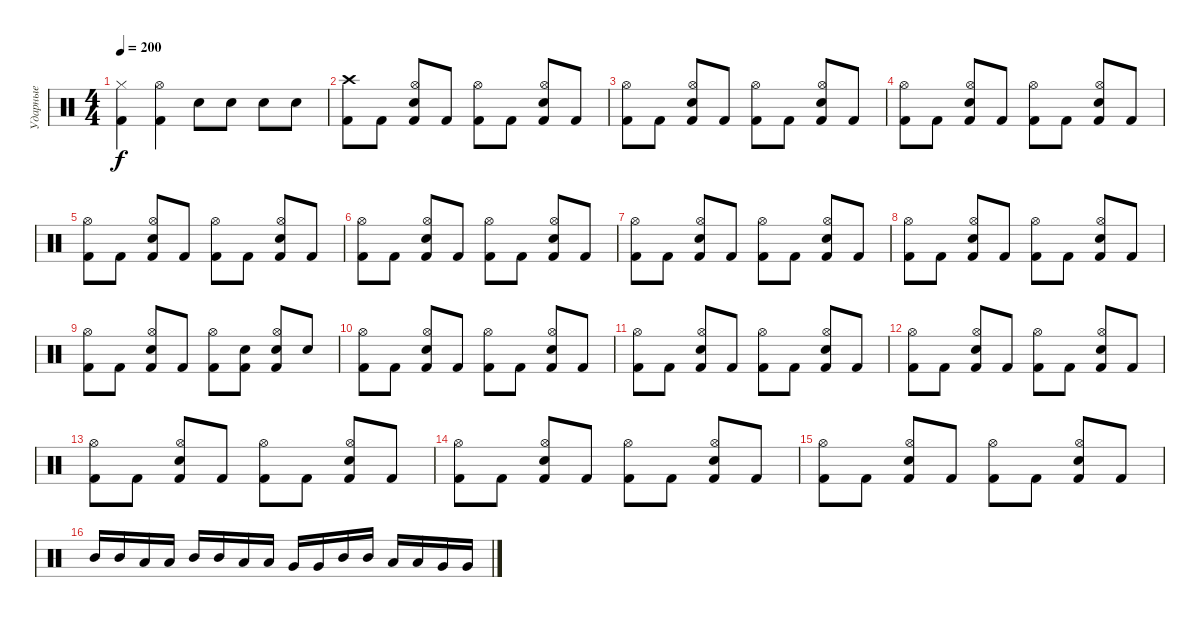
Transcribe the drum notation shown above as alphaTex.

\track ("Ударные" "Ударные") {instrument percussion}
\staff {score}
\articulation defaults
\ts (4 4)
\tempo 200
\clef neutral
\ks c
("Hi-Hat (closed)" "Kick (hit) 2").4{dy f} ("Hi-Hat (open)" "Kick (hit) 2").4 "Electric Snare (hit)".8 "Electric Snare (hit)".8 "Electric Snare (hit)".8 "Electric Snare (hit)".8 |
("Crash high (hit)" "Kick (hit) 2").8 "Kick (hit) 2".8 ("Hi-Hat (open)" "Electric Snare (hit)" "Kick (hit) 2").8 "Kick (hit) 2".8 ("Hi-Hat (open)" "Kick (hit) 2").8 "Kick (hit) 2".8 ("Hi-Hat (open)" "Electric Snare (hit)" "Kick (hit) 2").8 "Kick (hit) 2".8 |
("Hi-Hat (open)" "Kick (hit) 2").8 "Kick (hit) 2".8 ("Hi-Hat (open)" "Electric Snare (hit)" "Kick (hit) 2").8 "Kick (hit) 2".8 ("Hi-Hat (open)" "Kick (hit) 2").8 "Kick (hit) 2".8 ("Hi-Hat (open)" "Electric Snare (hit)" "Kick (hit) 2").8 "Kick (hit) 2".8 |
("Hi-Hat (open)" "Kick (hit) 2").8 "Kick (hit) 2".8 ("Hi-Hat (open)" "Electric Snare (hit)" "Kick (hit) 2").8 "Kick (hit) 2".8 ("Hi-Hat (open)" "Kick (hit) 2").8 "Kick (hit) 2".8 ("Hi-Hat (open)" "Electric Snare (hit)" "Kick (hit) 2").8 "Kick (hit) 2".8 |
("Hi-Hat (open)" "Kick (hit) 2").8 "Kick (hit) 2".8 ("Hi-Hat (open)" "Electric Snare (hit)" "Kick (hit) 2").8 "Kick (hit) 2".8 ("Hi-Hat (open)" "Kick (hit) 2").8 "Kick (hit) 2".8 ("Hi-Hat (open)" "Electric Snare (hit)" "Kick (hit) 2").8 "Kick (hit) 2".8 |
("Hi-Hat (open)" "Kick (hit) 2").8 "Kick (hit) 2".8 ("Hi-Hat (open)" "Electric Snare (hit)" "Kick (hit) 2").8 "Kick (hit) 2".8 ("Hi-Hat (open)" "Kick (hit) 2").8 "Kick (hit) 2".8 ("Hi-Hat (open)" "Electric Snare (hit)" "Kick (hit) 2").8 "Kick (hit) 2".8 |
("Hi-Hat (open)" "Kick (hit) 2").8 "Kick (hit) 2".8 ("Hi-Hat (open)" "Electric Snare (hit)" "Kick (hit) 2").8 "Kick (hit) 2".8 ("Hi-Hat (open)" "Kick (hit) 2").8 "Kick (hit) 2".8 ("Hi-Hat (open)" "Electric Snare (hit)" "Kick (hit) 2").8 "Kick (hit) 2".8 |
("Hi-Hat (open)" "Kick (hit) 2").8 "Kick (hit) 2".8 ("Hi-Hat (open)" "Electric Snare (hit)" "Kick (hit) 2").8 "Kick (hit) 2".8 ("Hi-Hat (open)" "Kick (hit) 2").8 "Kick (hit) 2".8 ("Hi-Hat (open)" "Electric Snare (hit)" "Kick (hit) 2").8 "Kick (hit) 2".8 |
("Hi-Hat (open)" "Kick (hit) 2").8 "Kick (hit) 2".8 ("Hi-Hat (open)" "Electric Snare (hit)" "Kick (hit) 2").8 "Kick (hit) 2".8 ("Hi-Hat (open)" "Kick (hit) 2").8 ("Electric Snare (hit)" "Kick (hit) 2").8 ("Hi-Hat (open)" "Electric Snare (hit)" "Kick (hit) 2").8 "Electric Snare (hit)".8 |
("Hi-Hat (open)" "Kick (hit) 2").8 "Kick (hit) 2".8 ("Hi-Hat (open)" "Electric Snare (hit)" "Kick (hit) 2").8 "Kick (hit) 2".8 ("Hi-Hat (open)" "Kick (hit) 2").8 "Kick (hit) 2".8 ("Hi-Hat (open)" "Electric Snare (hit)" "Kick (hit) 2").8 "Kick (hit) 2".8 |
("Hi-Hat (open)" "Kick (hit) 2").8 "Kick (hit) 2".8 ("Hi-Hat (open)" "Electric Snare (hit)" "Kick (hit) 2").8 "Kick (hit) 2".8 ("Hi-Hat (open)" "Kick (hit) 2").8 "Kick (hit) 2".8 ("Hi-Hat (open)" "Electric Snare (hit)" "Kick (hit) 2").8 "Kick (hit) 2".8 |
("Hi-Hat (open)" "Kick (hit) 2").8 "Kick (hit) 2".8 ("Hi-Hat (open)" "Electric Snare (hit)" "Kick (hit) 2").8 "Kick (hit) 2".8 ("Hi-Hat (open)" "Kick (hit) 2").8 "Kick (hit) 2".8 ("Hi-Hat (open)" "Electric Snare (hit)" "Kick (hit) 2").8 "Kick (hit) 2".8 |
("Hi-Hat (open)" "Kick (hit) 2").8 "Kick (hit) 2".8 ("Hi-Hat (open)" "Electric Snare (hit)" "Kick (hit) 2").8 "Kick (hit) 2".8 ("Hi-Hat (open)" "Kick (hit) 2").8 "Kick (hit) 2".8 ("Hi-Hat (open)" "Electric Snare (hit)" "Kick (hit) 2").8 "Kick (hit) 2".8 |
("Hi-Hat (open)" "Kick (hit) 2").8 "Kick (hit) 2".8 ("Hi-Hat (open)" "Electric Snare (hit)" "Kick (hit) 2").8 "Kick (hit) 2".8 ("Hi-Hat (open)" "Kick (hit) 2").8 "Kick (hit) 2".8 ("Hi-Hat (open)" "Electric Snare (hit)" "Kick (hit) 2").8 "Kick (hit) 2".8 |
("Hi-Hat (open)" "Kick (hit) 2").8 "Kick (hit) 2".8 ("Hi-Hat (open)" "Electric Snare (hit)" "Kick (hit) 2").8 "Kick (hit) 2".8 ("Hi-Hat (open)" "Kick (hit) 2").8 "Kick (hit) 2".8 ("Hi-Hat (open)" "Electric Snare (hit)" "Kick (hit) 2").8 "Kick (hit) 2".8 |
"Mid Tom (hit)".16 "Mid Tom (hit)".16 "Low Tom (hit)".16 "Low Tom (hit)".16 "Mid Tom (hit)".16 "Mid Tom (hit)".16 "Low Tom (hit)".16 "Low Tom (hit)".16 "Very Low Tom (hit)".16 "Very Low Tom (hit)".16 "Mid Tom (hit)".16 "Mid Tom (hit)".16 "Low Tom (hit)".16 "Low Tom (hit)".16 "Very Low Tom (hit)".16 "Very Low Tom (hit)".16
